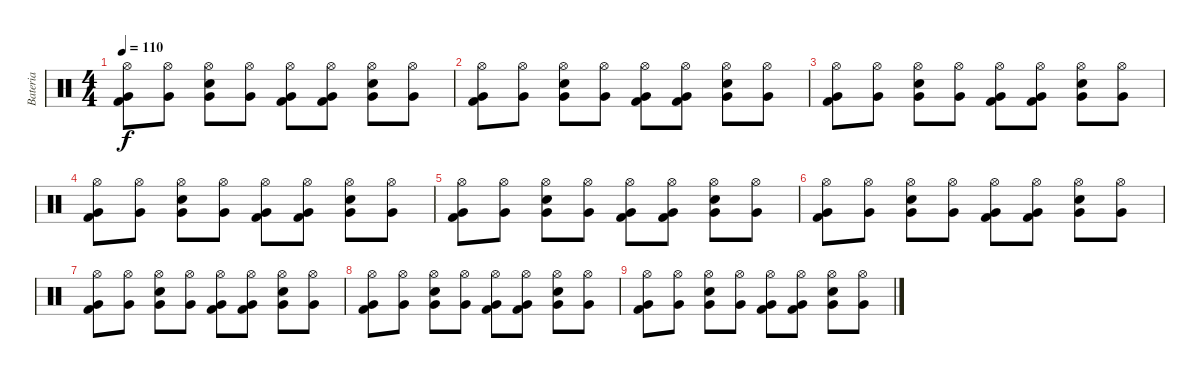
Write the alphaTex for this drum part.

\track ("Bateria" "Bateria") {instrument percussion}
\staff {score}
\articulation defaults
\ts (4 4)
\tempo 110
\clef neutral
\ks c
("Hi-Hat (open)" "Very Low Tom (hit)" "Kick (hit) 2").8{dy f} ("Hi-Hat (open)" "Very Low Tom (hit)").8 ("Electric Snare (hit)" "Hi-Hat (open)" "Very Low Tom (hit)").8 ("Hi-Hat (open)" "Very Low Tom (hit)").8 ("Hi-Hat (open)" "Very Low Tom (hit)" "Kick (hit) 2").8 ("Hi-Hat (open)" "Very Low Tom (hit)" "Kick (hit) 2").8 ("Electric Snare (hit)" "Hi-Hat (open)" "Very Low Tom (hit)").8 ("Hi-Hat (open)" "Very Low Tom (hit)").8 |
("Hi-Hat (open)" "Very Low Tom (hit)" "Kick (hit) 2").8 ("Hi-Hat (open)" "Very Low Tom (hit)").8 ("Electric Snare (hit)" "Hi-Hat (open)" "Very Low Tom (hit)").8 ("Hi-Hat (open)" "Very Low Tom (hit)").8 ("Hi-Hat (open)" "Very Low Tom (hit)" "Kick (hit) 2").8 ("Hi-Hat (open)" "Very Low Tom (hit)" "Kick (hit) 2").8 ("Electric Snare (hit)" "Hi-Hat (open)" "Very Low Tom (hit)").8 ("Hi-Hat (open)" "Very Low Tom (hit)").8 |
("Hi-Hat (open)" "Very Low Tom (hit)" "Kick (hit) 2").8 ("Hi-Hat (open)" "Very Low Tom (hit)").8 ("Electric Snare (hit)" "Hi-Hat (open)" "Very Low Tom (hit)").8 ("Hi-Hat (open)" "Very Low Tom (hit)").8 ("Hi-Hat (open)" "Very Low Tom (hit)" "Kick (hit) 2").8 ("Hi-Hat (open)" "Very Low Tom (hit)" "Kick (hit) 2").8 ("Electric Snare (hit)" "Hi-Hat (open)" "Very Low Tom (hit)").8 ("Hi-Hat (open)" "Very Low Tom (hit)").8 |
("Hi-Hat (open)" "Very Low Tom (hit)" "Kick (hit) 2").8 ("Hi-Hat (open)" "Very Low Tom (hit)").8 ("Electric Snare (hit)" "Hi-Hat (open)" "Very Low Tom (hit)").8 ("Hi-Hat (open)" "Very Low Tom (hit)").8 ("Hi-Hat (open)" "Very Low Tom (hit)" "Kick (hit) 2").8 ("Hi-Hat (open)" "Very Low Tom (hit)" "Kick (hit) 2").8 ("Electric Snare (hit)" "Hi-Hat (open)" "Very Low Tom (hit)").8 ("Hi-Hat (open)" "Very Low Tom (hit)").8 |
("Hi-Hat (open)" "Very Low Tom (hit)" "Kick (hit) 2").8 ("Hi-Hat (open)" "Very Low Tom (hit)").8 ("Electric Snare (hit)" "Hi-Hat (open)" "Very Low Tom (hit)").8 ("Hi-Hat (open)" "Very Low Tom (hit)").8 ("Hi-Hat (open)" "Very Low Tom (hit)" "Kick (hit) 2").8 ("Hi-Hat (open)" "Very Low Tom (hit)" "Kick (hit) 2").8 ("Electric Snare (hit)" "Hi-Hat (open)" "Very Low Tom (hit)").8 ("Hi-Hat (open)" "Very Low Tom (hit)").8 |
("Hi-Hat (open)" "Very Low Tom (hit)" "Kick (hit) 2").8 ("Hi-Hat (open)" "Very Low Tom (hit)").8 ("Electric Snare (hit)" "Hi-Hat (open)" "Very Low Tom (hit)").8 ("Hi-Hat (open)" "Very Low Tom (hit)").8 ("Hi-Hat (open)" "Very Low Tom (hit)" "Kick (hit) 2").8 ("Hi-Hat (open)" "Very Low Tom (hit)" "Kick (hit) 2").8 ("Electric Snare (hit)" "Hi-Hat (open)" "Very Low Tom (hit)").8 ("Hi-Hat (open)" "Very Low Tom (hit)").8 |
("Hi-Hat (open)" "Very Low Tom (hit)" "Kick (hit) 2").8 ("Hi-Hat (open)" "Very Low Tom (hit)").8 ("Electric Snare (hit)" "Hi-Hat (open)" "Very Low Tom (hit)").8 ("Hi-Hat (open)" "Very Low Tom (hit)").8 ("Hi-Hat (open)" "Very Low Tom (hit)" "Kick (hit) 2").8 ("Hi-Hat (open)" "Very Low Tom (hit)" "Kick (hit) 2").8 ("Electric Snare (hit)" "Hi-Hat (open)" "Very Low Tom (hit)").8 ("Hi-Hat (open)" "Very Low Tom (hit)").8 |
("Hi-Hat (open)" "Very Low Tom (hit)" "Kick (hit) 2").8 ("Hi-Hat (open)" "Very Low Tom (hit)").8 ("Electric Snare (hit)" "Hi-Hat (open)" "Very Low Tom (hit)").8 ("Hi-Hat (open)" "Very Low Tom (hit)").8 ("Hi-Hat (open)" "Very Low Tom (hit)" "Kick (hit) 2").8 ("Hi-Hat (open)" "Very Low Tom (hit)" "Kick (hit) 2").8 ("Electric Snare (hit)" "Hi-Hat (open)" "Very Low Tom (hit)").8 ("Hi-Hat (open)" "Very Low Tom (hit)").8 |
("Hi-Hat (open)" "Very Low Tom (hit)" "Kick (hit) 2").8 ("Hi-Hat (open)" "Very Low Tom (hit)").8 ("Electric Snare (hit)" "Hi-Hat (open)" "Very Low Tom (hit)").8 ("Hi-Hat (open)" "Very Low Tom (hit)").8 ("Hi-Hat (open)" "Very Low Tom (hit)" "Kick (hit) 2").8 ("Hi-Hat (open)" "Very Low Tom (hit)" "Kick (hit) 2").8 ("Electric Snare (hit)" "Hi-Hat (open)" "Very Low Tom (hit)").8 ("Hi-Hat (open)" "Very Low Tom (hit)").8
